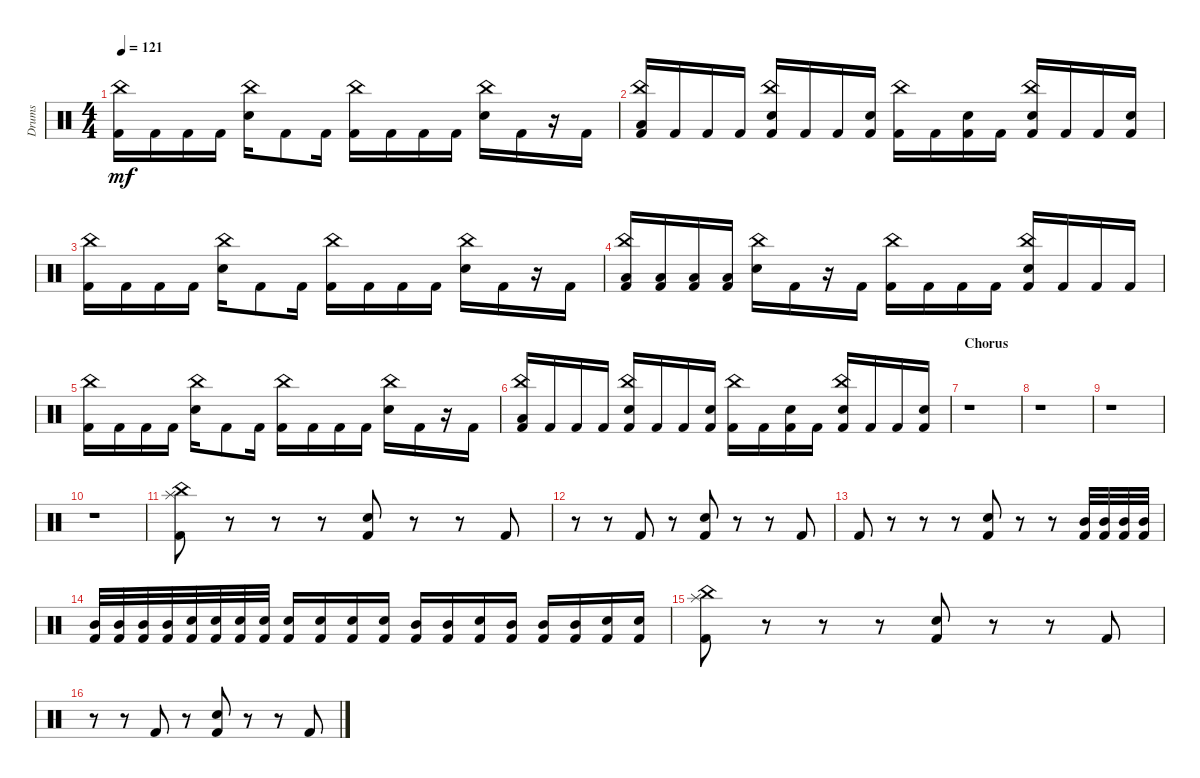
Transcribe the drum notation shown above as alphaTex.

\track ("Drums" "Drums") {instrument percussion}
\staff {score}
\articulation defaults
\ts (4 4)
\tempo 121
\clef neutral
\ks c
("Kick (hit) 2" "China (hit)").16{dy mf} "Kick (hit) 2".16 "Kick (hit) 2".16 "Kick (hit) 2".16 ("Snare (hit) 2" "China (hit)").16 "Kick (hit) 2".8 "Kick (hit) 2".16 ("Kick (hit) 2" "China (hit)").16 "Kick (hit) 2".16 "Kick (hit) 2".16 "Kick (hit) 2".16 ("Snare (hit) 2" "China (hit)").16 "Kick (hit) 2".16 r.16 "Kick (hit) 2".16 |
("Kick (hit) 2" "Low Tom (hit)" "China (hit)").16 "Kick (hit) 2".16 "Kick (hit) 2".16 "Kick (hit) 2".16 ("Kick (hit) 2" "Snare (hit) 2" "China (hit)").16 "Kick (hit) 2".16 "Kick (hit) 2".16 ("Kick (hit) 2" "Snare (hit) 2").16 ("Kick (hit) 2" "China (hit)").16 "Kick (hit) 2".16 ("Kick (hit) 2" "Snare (hit) 2").16 "Kick (hit) 2".16 ("Kick (hit) 2" "Snare (hit) 2" "China (hit)").16 "Kick (hit) 2".16 "Kick (hit) 2".16 ("Kick (hit) 2" "Snare (hit) 2").16 |
("Kick (hit) 2" "China (hit)").16 "Kick (hit) 2".16 "Kick (hit) 2".16 "Kick (hit) 2".16 ("Snare (hit) 2" "China (hit)").16 "Kick (hit) 2".8 "Kick (hit) 2".16 ("Kick (hit) 2" "China (hit)").16 "Kick (hit) 2".16 "Kick (hit) 2".16 "Kick (hit) 2".16 ("Snare (hit) 2" "China (hit)").16 "Kick (hit) 2".16 r.16 "Kick (hit) 2".16 |
("Kick (hit) 2" "Low Tom (hit)" "China (hit)").16 ("Kick (hit) 2" "Low Tom (hit)").16 ("Kick (hit) 2" "Low Tom (hit)").16 ("Kick (hit) 2" "Low Tom (hit)").16 ("Snare (hit) 2" "China (hit)").16 "Kick (hit) 2".16 r.16 "Kick (hit) 2".16 ("Kick (hit) 2" "China (hit)").16 "Kick (hit) 2".16 "Kick (hit) 2".16 "Kick (hit) 2".16 ("Kick (hit) 2" "Snare (hit) 2" "China (hit)").16 "Kick (hit) 2".16 "Kick (hit) 2".16 "Kick (hit) 2".16 |
("Kick (hit) 2" "China (hit)").16 "Kick (hit) 2".16 "Kick (hit) 2".16 "Kick (hit) 2".16 ("Snare (hit) 2" "China (hit)").16 "Kick (hit) 2".8 "Kick (hit) 2".16 ("Kick (hit) 2" "China (hit)").16 "Kick (hit) 2".16 "Kick (hit) 2".16 "Kick (hit) 2".16 ("Snare (hit) 2" "China (hit)").16 "Kick (hit) 2".16 r.16 "Kick (hit) 2".16 |
("Kick (hit) 2" "Low Tom (hit)" "China (hit)").16 "Kick (hit) 2".16 "Kick (hit) 2".16 "Kick (hit) 2".16 ("Kick (hit) 2" "Snare (hit) 2" "China (hit)").16 "Kick (hit) 2".16 "Kick (hit) 2".16 ("Kick (hit) 2" "Snare (hit) 2").16 ("Kick (hit) 2" "China (hit)").16 "Kick (hit) 2".16 ("Kick (hit) 2" "Snare (hit) 2").16 "Kick (hit) 2".16 ("Kick (hit) 2" "Snare (hit) 2" "China (hit)").16 "Kick (hit) 2".16 "Kick (hit) 2".16 ("Kick (hit) 2" "Snare (hit) 2").16 |
\section ("" "Chorus")
r.1 |
r.1 |
r.1 |
r.1 |
("Kick (hit) 2" "Splash (hit)" "China (hit)").8 r.8 r.8 r.8 ("Kick (hit) 2" "Snare (hit) 2").8 r.8 r.8 "Kick (hit) 2".8 |
r.8 r.8 "Kick (hit) 2".8 r.8 ("Kick (hit) 2" "Snare (hit) 2").8 r.8 r.8 "Kick (hit) 2".8 |
"Kick (hit) 2".8 r.8 r.8 r.8 ("Kick (hit) 2" "Snare (hit) 2").8 r.8 r.8 ("Kick (hit) 2" "Mid Tom (hit)").32 ("Kick (hit) 2" "Mid Tom (hit)").32 ("Kick (hit) 2" "Mid Tom (hit)").32 ("Kick (hit) 2" "Mid Tom (hit)").32 |
("Kick (hit) 2" "Mid Tom (hit)").32 ("Kick (hit) 2" "Mid Tom (hit)").32 ("Kick (hit) 2" "Mid Tom (hit)").32 ("Kick (hit) 2" "Mid Tom (hit)").32 ("Kick (hit) 2" "Snare (hit) 2").32 ("Kick (hit) 2" "Snare (hit) 2").32 ("Kick (hit) 2" "Snare (hit) 2").32 ("Kick (hit) 2" "Snare (hit) 2").32 ("Kick (hit) 2" "Snare (hit) 2").16 ("Kick (hit) 2" "Snare (hit) 2").16 ("Kick (hit) 2" "Snare (hit) 2").16 ("Kick (hit) 2" "Snare (hit) 2").16 ("Kick (hit) 2" "Mid Tom (hit)").16 ("Kick (hit) 2" "Mid Tom (hit)").16 ("Kick (hit) 2" "Snare (hit) 2").16 ("Kick (hit) 2" "Mid Tom (hit)").16 ("Kick (hit) 2" "Mid Tom (hit)").16 ("Kick (hit) 2" "Mid Tom (hit)").16 ("Kick (hit) 2" "Snare (hit) 2").16 ("Kick (hit) 2" "Snare (hit) 2").16 |
("Kick (hit) 2" "Splash (hit)" "China (hit)").8 r.8 r.8 r.8 ("Kick (hit) 2" "Snare (hit) 2").8 r.8 r.8 "Kick (hit) 2".8 |
r.8 r.8 "Kick (hit) 2".8 r.8 ("Kick (hit) 2" "Snare (hit) 2").8 r.8 r.8 "Kick (hit) 2".8
